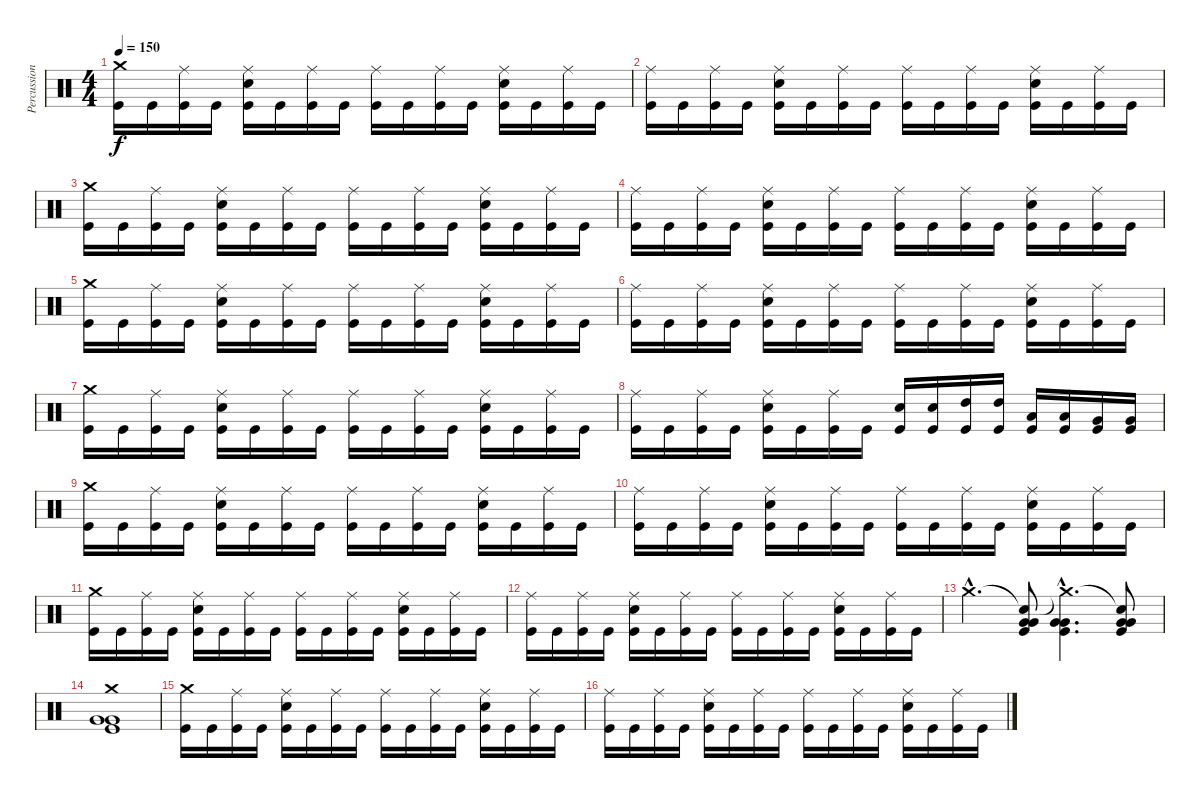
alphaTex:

\track ("Percussioni" "Percussion") {instrument percussion}
\staff {score}
\articulation defaults
\ts (4 4)
\tempo 150
\clef neutral
\ks c
("Crash medium (hit)" "Kick (hit)").16{dy f} "Kick (hit)".16 ("Ride (middle)" "Kick (hit)").16 "Kick (hit)".16 ("Ride (middle)" "Electric Snare (hit)" "Kick (hit)").16 "Kick (hit)".16 ("Ride (middle)" "Kick (hit)").16 "Kick (hit)".16 ("Ride (middle)" "Kick (hit)").16 "Kick (hit)".16 ("Ride (middle)" "Kick (hit)").16 "Kick (hit)".16 ("Ride (middle)" "Electric Snare (hit)" "Kick (hit)").16 "Kick (hit)".16 ("Ride (middle)" "Kick (hit)").16 "Kick (hit)".16 |
("Ride (middle)" "Kick (hit)").16 "Kick (hit)".16 ("Ride (middle)" "Kick (hit)").16 "Kick (hit)".16 ("Ride (middle)" "Electric Snare (hit)" "Kick (hit)").16 "Kick (hit)".16 ("Ride (middle)" "Kick (hit)").16 "Kick (hit)".16 ("Ride (middle)" "Kick (hit)").16 "Kick (hit)".16 ("Ride (middle)" "Kick (hit)").16 "Kick (hit)".16 ("Ride (middle)" "Electric Snare (hit)" "Kick (hit)").16 "Kick (hit)".16 ("Ride (middle)" "Kick (hit)").16 "Kick (hit)".16 |
("Crash medium (hit)" "Kick (hit)").16 "Kick (hit)".16 ("Ride (middle)" "Kick (hit)").16 "Kick (hit)".16 ("Ride (middle)" "Electric Snare (hit)" "Kick (hit)").16 "Kick (hit)".16 ("Ride (middle)" "Kick (hit)").16 "Kick (hit)".16 ("Ride (middle)" "Kick (hit)").16 "Kick (hit)".16 ("Ride (middle)" "Kick (hit)").16 "Kick (hit)".16 ("Ride (middle)" "Electric Snare (hit)" "Kick (hit)").16 "Kick (hit)".16 ("Ride (middle)" "Kick (hit)").16 "Kick (hit)".16 |
("Ride (middle)" "Kick (hit)").16 "Kick (hit)".16 ("Ride (middle)" "Kick (hit)").16 "Kick (hit)".16 ("Ride (middle)" "Electric Snare (hit)" "Kick (hit)").16 "Kick (hit)".16 ("Ride (middle)" "Kick (hit)").16 "Kick (hit)".16 ("Ride (middle)" "Kick (hit)").16 "Kick (hit)".16 ("Ride (middle)" "Kick (hit)").16 "Kick (hit)".16 ("Ride (middle)" "Electric Snare (hit)" "Kick (hit)").16 "Kick (hit)".16 ("Ride (middle)" "Kick (hit)").16 "Kick (hit)".16 |
("Crash medium (hit)" "Kick (hit)").16 "Kick (hit)".16 ("Ride (middle)" "Kick (hit)").16 "Kick (hit)".16 ("Ride (middle)" "Electric Snare (hit)" "Kick (hit)").16 "Kick (hit)".16 ("Ride (middle)" "Kick (hit)").16 "Kick (hit)".16 ("Ride (middle)" "Kick (hit)").16 "Kick (hit)".16 ("Ride (middle)" "Kick (hit)").16 "Kick (hit)".16 ("Ride (middle)" "Electric Snare (hit)" "Kick (hit)").16 "Kick (hit)".16 ("Ride (middle)" "Kick (hit)").16 "Kick (hit)".16 |
("Ride (middle)" "Kick (hit)").16 "Kick (hit)".16 ("Ride (middle)" "Kick (hit)").16 "Kick (hit)".16 ("Ride (middle)" "Electric Snare (hit)" "Kick (hit)").16 "Kick (hit)".16 ("Ride (middle)" "Kick (hit)").16 "Kick (hit)".16 ("Ride (middle)" "Kick (hit)").16 "Kick (hit)".16 ("Ride (middle)" "Kick (hit)").16 "Kick (hit)".16 ("Ride (middle)" "Electric Snare (hit)" "Kick (hit)").16 "Kick (hit)".16 ("Ride (middle)" "Kick (hit)").16 "Kick (hit)".16 |
("Crash medium (hit)" "Kick (hit)").16 "Kick (hit)".16 ("Ride (middle)" "Kick (hit)").16 "Kick (hit)".16 ("Ride (middle)" "Electric Snare (hit)" "Kick (hit)").16 "Kick (hit)".16 ("Ride (middle)" "Kick (hit)").16 "Kick (hit)".16 ("Ride (middle)" "Kick (hit)").16 "Kick (hit)".16 ("Ride (middle)" "Kick (hit)").16 "Kick (hit)".16 ("Ride (middle)" "Electric Snare (hit)" "Kick (hit)").16 "Kick (hit)".16 ("Ride (middle)" "Kick (hit)").16 "Kick (hit)".16 |
("Ride (middle)" "Kick (hit)").16 "Kick (hit)".16 ("Ride (middle)" "Kick (hit)").16 "Kick (hit)".16 ("Ride (middle)" "Electric Snare (hit)" "Kick (hit)").16 "Kick (hit)".16 ("Ride (middle)" "Kick (hit)").16 "Kick (hit)".16 ("Electric Snare (hit)" "Kick (hit)").16 ("Electric Snare (hit)" "Kick (hit)").16 ("High Tom (hit)" "Kick (hit)").16 ("High Tom (hit)" "Kick (hit)").16 ("Low Tom (hit)" "Kick (hit)").16 ("Low Tom (hit)" "Kick (hit)").16 ("Very Low Tom (hit)" "Kick (hit)").16 ("Very Low Tom (hit)" "Kick (hit)").16 |
("Crash medium (hit)" "Kick (hit)").16 "Kick (hit)".16 ("Ride (middle)" "Kick (hit)").16 "Kick (hit)".16 ("Ride (middle)" "Electric Snare (hit)" "Kick (hit)").16 "Kick (hit)".16 ("Ride (middle)" "Kick (hit)").16 "Kick (hit)".16 ("Ride (middle)" "Kick (hit)").16 "Kick (hit)".16 ("Ride (middle)" "Kick (hit)").16 "Kick (hit)".16 ("Ride (middle)" "Electric Snare (hit)" "Kick (hit)").16 "Kick (hit)".16 ("Ride (middle)" "Kick (hit)").16 "Kick (hit)".16 |
("Ride (middle)" "Kick (hit)").16 "Kick (hit)".16 ("Ride (middle)" "Kick (hit)").16 "Kick (hit)".16 ("Ride (middle)" "Electric Snare (hit)" "Kick (hit)").16 "Kick (hit)".16 ("Ride (middle)" "Kick (hit)").16 "Kick (hit)".16 ("Ride (middle)" "Kick (hit)").16 "Kick (hit)".16 ("Ride (middle)" "Kick (hit)").16 "Kick (hit)".16 ("Ride (middle)" "Electric Snare (hit)" "Kick (hit)").16 "Kick (hit)".16 ("Ride (middle)" "Kick (hit)").16 "Kick (hit)".16 |
("Crash medium (hit)" "Kick (hit)").16 "Kick (hit)".16 ("Ride (middle)" "Kick (hit)").16 "Kick (hit)".16 ("Ride (middle)" "Electric Snare (hit)" "Kick (hit)").16 "Kick (hit)".16 ("Ride (middle)" "Kick (hit)").16 "Kick (hit)".16 ("Ride (middle)" "Kick (hit)").16 "Kick (hit)".16 ("Ride (middle)" "Kick (hit)").16 "Kick (hit)".16 ("Ride (middle)" "Electric Snare (hit)" "Kick (hit)").16 "Kick (hit)".16 ("Ride (middle)" "Kick (hit)").16 "Kick (hit)".16 |
("Ride (middle)" "Kick (hit)").16 "Kick (hit)".16 ("Ride (middle)" "Kick (hit)").16 "Kick (hit)".16 ("Ride (middle)" "Electric Snare (hit)" "Kick (hit)").16 "Kick (hit)".16 ("Ride (middle)" "Kick (hit)").16 "Kick (hit)".16 ("Ride (middle)" "Kick (hit)").16 "Kick (hit)".16 ("Ride (middle)" "Kick (hit)").16 "Kick (hit)".16 ("Ride (middle)" "Electric Snare (hit)" "Kick (hit)").16 "Kick (hit)".16 ("Ride (middle)" "Kick (hit)").16 "Kick (hit)".16 |
"Crash medium (hit)"{hac}.4{d} ("Snare (hit)"{t} "Very Low Tom (hit)" "Very Low Tom (hit)" "Kick (hit)").8 ("Crash medium (hit)"{hac t} "Very Low Tom (hit)"{hac} "Very Low Tom (hit)"{hac} "Kick (hit)"{hac}).4{d} ("Snare (hit)"{t} "Very Low Tom (hit)" "Very Low Tom (hit)" "Kick (hit)").8 |
("Crash medium (hit)" "Very Low Tom (hit)" "Very Low Tom (hit)" "Kick (hit)").1 |
("Crash medium (hit)" "Kick (hit)").16 "Kick (hit)".16 ("Ride (middle)" "Kick (hit)").16 "Kick (hit)".16 ("Ride (middle)" "Electric Snare (hit)" "Kick (hit)").16 "Kick (hit)".16 ("Ride (middle)" "Kick (hit)").16 "Kick (hit)".16 ("Ride (middle)" "Kick (hit)").16 "Kick (hit)".16 ("Ride (middle)" "Kick (hit)").16 "Kick (hit)".16 ("Ride (middle)" "Electric Snare (hit)" "Kick (hit)").16 "Kick (hit)".16 ("Ride (middle)" "Kick (hit)").16 "Kick (hit)".16 |
("Ride (middle)" "Kick (hit)").16 "Kick (hit)".16 ("Ride (middle)" "Kick (hit)").16 "Kick (hit)".16 ("Ride (middle)" "Electric Snare (hit)" "Kick (hit)").16 "Kick (hit)".16 ("Ride (middle)" "Kick (hit)").16 "Kick (hit)".16 ("Ride (middle)" "Kick (hit)").16 "Kick (hit)".16 ("Ride (middle)" "Kick (hit)").16 "Kick (hit)".16 ("Ride (middle)" "Electric Snare (hit)" "Kick (hit)").16 "Kick (hit)".16 ("Ride (middle)" "Kick (hit)").16 "Kick (hit)".16
